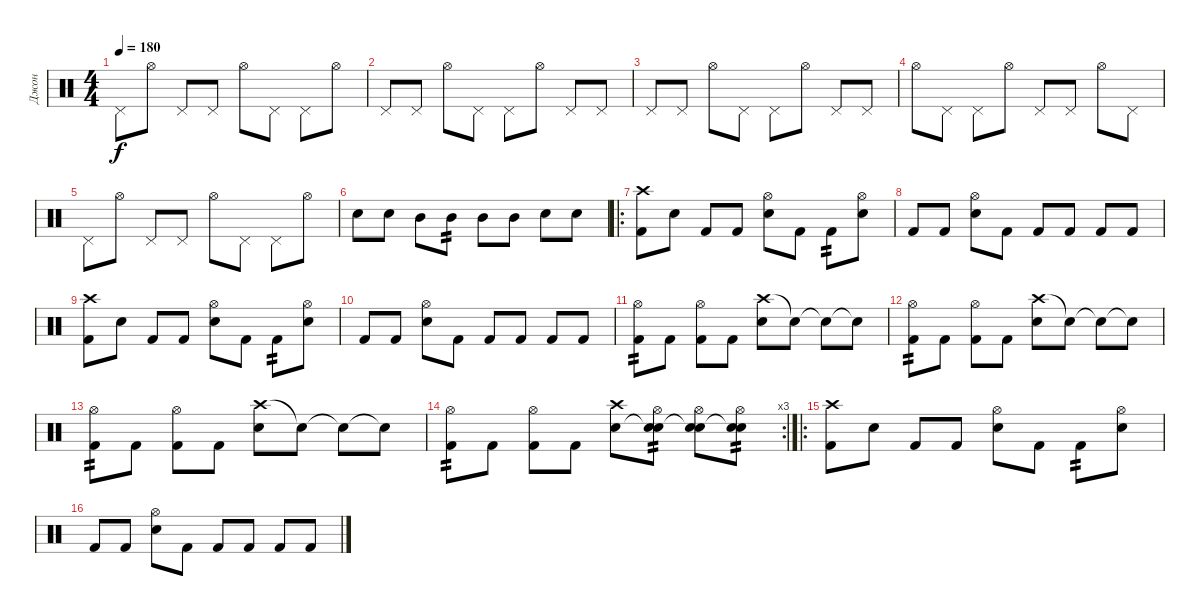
\track ("Джон" "Джон") {instrument percussion}
\staff {score}
\articulation defaults
\ts (4 4)
\tempo 180
\clef neutral
\ks c "Pedal Hi-Hat (hit)".8{dy f} "Hi-Hat (open)".8 "Pedal Hi-Hat (hit)".8 "Pedal Hi-Hat (hit)".8 "Hi-Hat (open)".8 "Pedal Hi-Hat (hit)".8 "Pedal Hi-Hat (hit)".8 "Hi-Hat (open)".8
|
"Pedal Hi-Hat (hit)".8 "Pedal Hi-Hat (hit)".8 "Hi-Hat (open)".8 "Pedal Hi-Hat (hit)".8 "Pedal Hi-Hat (hit)".8 "Hi-Hat (open)".8 "Pedal Hi-Hat (hit)".8 "Pedal Hi-Hat (hit)".8 |
"Pedal Hi-Hat (hit)".8 "Pedal Hi-Hat (hit)".8 "Hi-Hat (open)".8 "Pedal Hi-Hat (hit)".8 "Pedal Hi-Hat (hit)".8 "Hi-Hat (open)".8 "Pedal Hi-Hat (hit)".8 "Pedal Hi-Hat (hit)".8 |
"Hi-Hat (open)".8 "Pedal Hi-Hat (hit)".8 "Pedal Hi-Hat (hit)".8 "Hi-Hat (open)".8 "Pedal Hi-Hat (hit)".8 "Pedal Hi-Hat (hit)".8 "Hi-Hat (open)".8 "Pedal Hi-Hat (hit)".8 |
"Pedal Hi-Hat (hit)".8 "Hi-Hat (open)".8 "Pedal Hi-Hat (hit)".8 "Pedal Hi-Hat (hit)".8 "Hi-Hat (open)".8 "Pedal Hi-Hat (hit)".8 "Pedal Hi-Hat (hit)".8 "Hi-Hat (open)".8 |
"Electric Snare (hit)".8 "Snare (hit)".8 "Mid Tom (hit)".8 "Mid Tom (hit)".8{tp 2} "Mid Tom (hit)".8 "Mid Tom (hit)".8 "Electric Snare (hit)".8 "Snare (hit)".8 |
\ro
("Crash high (hit)" "Kick (hit) 2").8 "Snare (hit)".8 "Kick (hit) 2".8 "Kick (hit) 2".8 ("Hi-Hat (open)" "Snare (hit) 2").8 "Kick (hit) 2".8 "Kick (hit) 2".8{tp 2} ("Hi-Hat (open)" "Snare (hit) 2").8 |
"Kick (hit) 2".8 "Kick (hit) 2".8 ("Hi-Hat (open)" "Snare (hit) 2").8 "Kick (hit) 2".8 "Kick (hit) 2".8 "Kick (hit) 2".8 "Kick (hit) 2".8 "Kick (hit) 2".8 |
("Crash high (hit)" "Kick (hit) 2").8 "Snare (hit)".8 "Kick (hit) 2".8 "Kick (hit) 2".8 ("Hi-Hat (open)" "Snare (hit) 2").8 "Kick (hit) 2".8 "Kick (hit) 2".8{tp 2} ("Hi-Hat (open)" "Snare (hit) 2").8 |
"Kick (hit) 2".8 "Kick (hit) 2".8 ("Hi-Hat (open)" "Snare (hit) 2").8 "Kick (hit) 2".8 "Kick (hit) 2".8 "Kick (hit) 2".8 "Kick (hit) 2".8 "Kick (hit) 2".8 |
("Hi-Hat (open)" "Kick (hit) 2").8{tp 2} "Kick (hit) 2".8 ("Hi-Hat (open)" "Kick (hit) 2").8 "Kick (hit) 2".8 ("Crash high (hit)" "Snare (hit) 2").8 "Snare (hit)"{t}.8 "Snare (hit)"{t}.8 "Snare (hit)"{t}.8 |
("Hi-Hat (open)" "Kick (hit) 2").8{tp 2} "Kick (hit) 2".8 ("Hi-Hat (open)" "Kick (hit) 2").8 "Kick (hit) 2".8 ("Crash high (hit)" "Snare (hit) 2").8 "Snare (hit)"{t}.8 "Snare (hit)"{t}.8 "Snare (hit)"{t}.8 |
("Hi-Hat (open)" "Kick (hit) 2").8{tp 2} "Kick (hit) 2".8 ("Hi-Hat (open)" "Kick (hit) 2").8 "Kick (hit) 2".8 ("Crash high (hit)" "Snare (hit) 2").8 "Snare (hit)"{t}.8 "Snare (hit)"{t}.8 "Snare (hit)"{t}.8 |
\rc 3
("Hi-Hat (open)" "Kick (hit) 2").8{tp 2} "Kick (hit) 2".8 ("Hi-Hat (open)" "Kick (hit) 2").8 "Kick (hit) 2".8 ("Crash high (hit)" "Snare (hit) 2").8 ("Hi-Hat (open)" "Snare (hit)"{t} "Electric Snare (hit)").8{tp 2} ("Hi-Hat (open)" "Snare (hit)"{t} "Electric Snare (hit)").8 ("Hi-Hat (open)" "Snare (hit)"{t} "Electric Snare (hit)").8{tp 2} |
\ro
("Crash high (hit)" "Kick (hit) 2").8 "Snare (hit)".8 "Kick (hit) 2".8 "Kick (hit) 2".8 ("Hi-Hat (open)" "Snare (hit) 2").8 "Kick (hit) 2".8 "Kick (hit) 2".8{tp 2} ("Hi-Hat (open)" "Snare (hit) 2").8 |
"Kick (hit) 2".8 "Kick (hit) 2".8 ("Hi-Hat (open)" "Snare (hit) 2").8 "Kick (hit) 2".8 "Kick (hit) 2".8 "Kick (hit) 2".8 "Kick (hit) 2".8 "Kick (hit) 2".8
